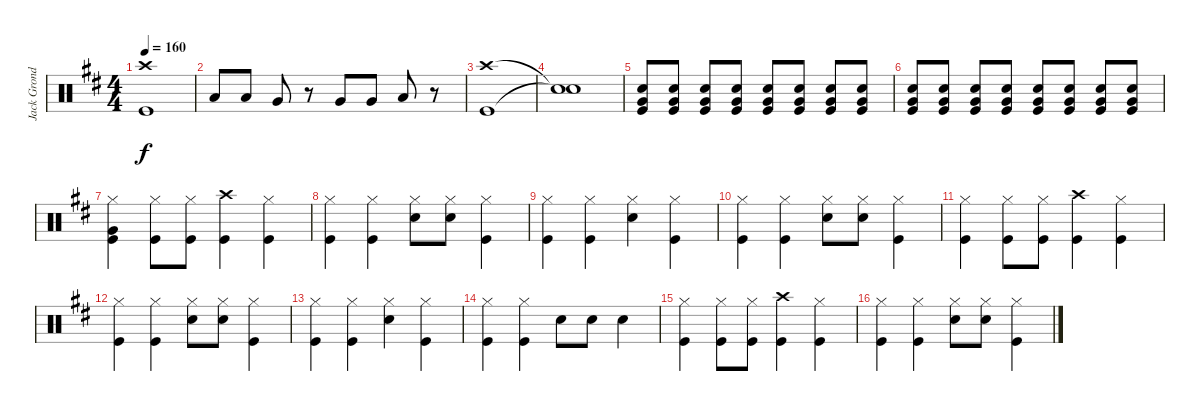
\track ("Jack Grondin Drums" "Jack Grond") {instrument percussion}
\staff {score}
\articulation defaults
\ts (4 4)
\tempo 160
\clef neutral
\ks d
("Crash high (hit)" "Kick (hit)").1{dy f} |
"Low Tom (hit)".8 "Low Tom (hit)".8 "Very Low Tom (hit)".8 r.8 "Very Low Tom (hit)".8 "Very Low Tom (hit)".8 "Low Floor Tom (hit)".8 r.8 |
("Crash high (hit)" "Kick (hit)").1 |
("Snare (hit)"{t} "Snare (hit)"{t}).1 |
("Snare (hit) 2" "Very Low Tom (hit)" "Kick (hit)").8 ("Snare (hit) 2" "Very Low Tom (hit)" "Kick (hit)").8 ("Snare (hit) 2" "Very Low Tom (hit)" "Kick (hit)").8 ("Snare (hit) 2" "Very Low Tom (hit)" "Kick (hit)").8 ("Snare (hit) 2" "Very Low Tom (hit)" "Kick (hit)").8 ("Snare (hit) 2" "Very Low Tom (hit)" "Kick (hit)").8 ("Snare (hit) 2" "Very Low Tom (hit)" "Kick (hit)").8 ("Snare (hit) 2" "Very Low Tom (hit)" "Kick (hit)").8 |
("Snare (hit) 2" "Very Low Tom (hit)" "Kick (hit)").8 ("Snare (hit) 2" "Very Low Tom (hit)" "Kick (hit)").8 ("Snare (hit) 2" "Very Low Tom (hit)" "Kick (hit)").8 ("Snare (hit) 2" "Very Low Tom (hit)" "Kick (hit)").8 ("Snare (hit) 2" "Very Low Tom (hit)" "Kick (hit)").8 ("Snare (hit) 2" "Very Low Tom (hit)" "Kick (hit)").8 ("Snare (hit) 2" "Very Low Tom (hit)" "Kick (hit)").8 ("Snare (hit) 2" "Very Low Tom (hit)" "Kick (hit)").8 |
("Hi-Hat (closed)" "Very Low Tom (hit)" "Kick (hit)").4{volume 13} ("Hi-Hat (closed)" "Kick (hit)").8 ("Hi-Hat (closed)" "Kick (hit)").8 ("Crash high (hit)" "Kick (hit)").4 ("Hi-Hat (closed)" "Kick (hit)").4 |
("Hi-Hat (closed)" "Kick (hit)").4 ("Hi-Hat (closed)" "Kick (hit)").4 ("Hi-Hat (closed)" "Snare (hit) 2").8 ("Hi-Hat (closed)" "Snare (hit) 2").8 ("Hi-Hat (closed)" "Kick (hit)").4 |
("Hi-Hat (closed)" "Kick (hit)").4 ("Hi-Hat (closed)" "Kick (hit)").4 ("Hi-Hat (closed)" "Snare (hit) 2").4 ("Hi-Hat (closed)" "Kick (hit)").4 |
("Hi-Hat (closed)" "Kick (hit)").4 ("Hi-Hat (closed)" "Kick (hit)").4 ("Hi-Hat (closed)" "Snare (hit) 2").8 ("Hi-Hat (closed)" "Snare (hit) 2").8 ("Hi-Hat (closed)" "Kick (hit)").4 |
("Hi-Hat (closed)" "Kick (hit)").4 ("Hi-Hat (closed)" "Kick (hit)").8 ("Hi-Hat (closed)" "Kick (hit)").8 ("Crash high (hit)" "Kick (hit)").4 ("Hi-Hat (closed)" "Kick (hit)").4 |
("Hi-Hat (closed)" "Kick (hit)").4 ("Hi-Hat (closed)" "Kick (hit)").4 ("Hi-Hat (closed)" "Snare (hit) 2").8 ("Hi-Hat (closed)" "Snare (hit) 2").8 ("Hi-Hat (closed)" "Kick (hit)").4 |
("Hi-Hat (closed)" "Kick (hit)").4 ("Hi-Hat (closed)" "Kick (hit)").4 ("Hi-Hat (closed)" "Snare (hit) 2").4 ("Hi-Hat (closed)" "Kick (hit)").4 |
("Hi-Hat (closed)" "Kick (hit)").4 ("Hi-Hat (closed)" "Kick (hit)").4 "Snare (hit) 2".8 "Snare (hit) 2".8 "Snare (hit) 2".4 |
("Hi-Hat (closed)" "Kick (hit)").4 ("Hi-Hat (closed)" "Kick (hit)").8 ("Hi-Hat (closed)" "Kick (hit)").8 ("Crash high (hit)" "Kick (hit)").4 ("Hi-Hat (closed)" "Kick (hit)").4 |
("Hi-Hat (closed)" "Kick (hit)").4 ("Hi-Hat (closed)" "Kick (hit)").4 ("Hi-Hat (closed)" "Snare (hit) 2").8 ("Hi-Hat (closed)" "Snare (hit) 2").8 ("Hi-Hat (closed)" "Kick (hit)").4
